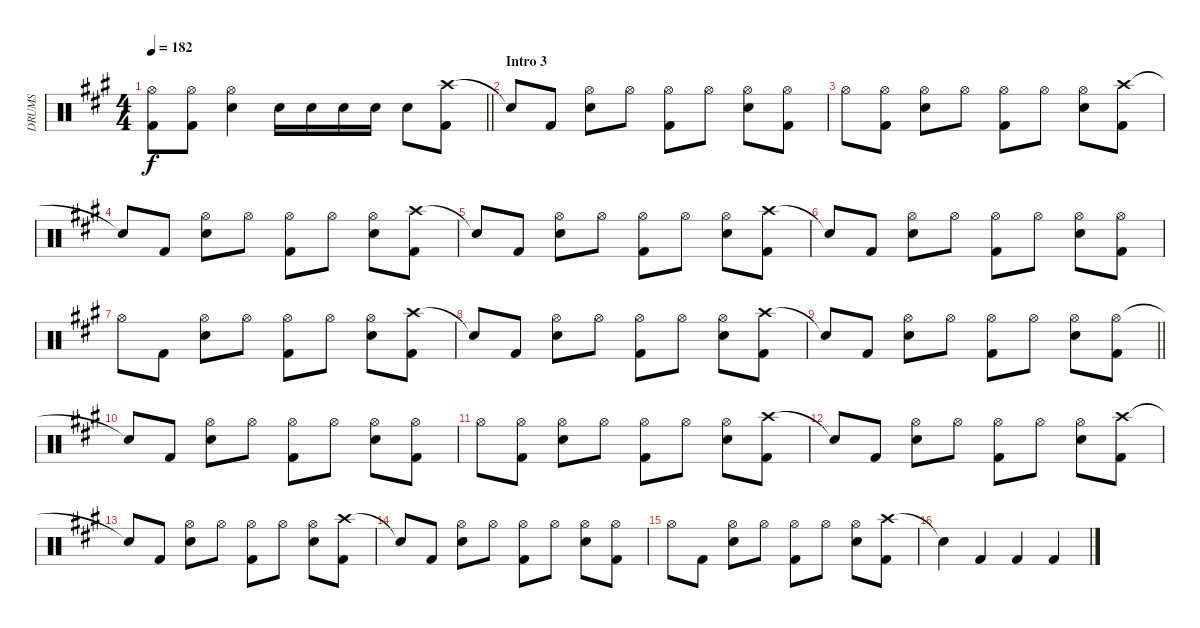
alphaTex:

\track ("DRUMS" "DRUMS") {instrument percussion}
\staff {score}
\articulation defaults
\ts (4 4)
\tempo 182
\clef neutral
\barLineRight lightlight
\ks a
("Hi-Hat (open)" "Kick (hit) 2").8{dy f} ("Hi-Hat (open)" "Kick (hit) 2").8 ("Hi-Hat (open)" "Snare (hit) 2").4 "Snare (hit) 2".16 "Snare (hit) 2".16 "Snare (hit) 2".16 "Snare (hit) 2".16 "Snare (hit) 2".8 ("Crash high (hit)" "Kick (hit) 2").8 |
\section ("" "Intro 3")
"Snare (hit)"{t}.8 "Kick (hit) 2".8 ("Hi-Hat (open)" "Snare (hit) 2").8 "Hi-Hat (open)".8 ("Hi-Hat (open)" "Kick (hit) 2").8 "Hi-Hat (open)".8 ("Hi-Hat (open)" "Snare (hit) 2").8 ("Hi-Hat (open)" "Kick (hit) 2").8 |
"Hi-Hat (open)".8 ("Hi-Hat (open)" "Kick (hit) 2").8 ("Hi-Hat (open)" "Snare (hit) 2").8 "Hi-Hat (open)".8 ("Hi-Hat (open)" "Kick (hit) 2").8 "Hi-Hat (open)".8 ("Hi-Hat (open)" "Snare (hit) 2").8 ("Crash high (hit)" "Kick (hit) 2").8 |
"Snare (hit)"{t}.8 "Kick (hit) 2".8 ("Hi-Hat (open)" "Snare (hit) 2").8 "Hi-Hat (open)".8 ("Hi-Hat (open)" "Kick (hit) 2").8 "Hi-Hat (open)".8 ("Hi-Hat (open)" "Snare (hit) 2").8 ("Crash high (hit)" "Kick (hit) 2").8 |
"Snare (hit)"{t}.8 "Kick (hit) 2".8 ("Hi-Hat (open)" "Snare (hit) 2").8 "Hi-Hat (open)".8 ("Hi-Hat (open)" "Kick (hit) 2").8 "Hi-Hat (open)".8 ("Hi-Hat (open)" "Snare (hit) 2").8 ("Crash high (hit)" "Kick (hit) 2").8 |
"Snare (hit)"{t}.8 "Kick (hit) 2".8 ("Hi-Hat (open)" "Snare (hit) 2").8 "Hi-Hat (open)".8 ("Hi-Hat (open)" "Kick (hit) 2").8 "Hi-Hat (open)".8 ("Hi-Hat (open)" "Snare (hit) 2").8 ("Hi-Hat (open)" "Kick (hit) 2").8 |
"Hi-Hat (open)".8 "Kick (hit) 2".8 ("Hi-Hat (open)" "Snare (hit) 2").8 "Hi-Hat (open)".8 ("Hi-Hat (open)" "Kick (hit) 2").8 "Hi-Hat (open)".8 ("Hi-Hat (open)" "Snare (hit) 2").8 ("Crash high (hit)" "Kick (hit) 2").8 |
"Snare (hit)"{t}.8 "Kick (hit) 2".8 ("Hi-Hat (open)" "Snare (hit) 2").8 "Hi-Hat (open)".8 ("Hi-Hat (open)" "Kick (hit) 2").8 "Hi-Hat (open)".8 ("Hi-Hat (open)" "Snare (hit) 2").8 ("Crash high (hit)" "Kick (hit) 2").8 |
\barLineRight lightlight "Snare (hit)"{t}.8 "Kick (hit) 2".8
("Hi-Hat (open)" "Snare (hit) 2").8 "Hi-Hat (open)".8 ("Hi-Hat (open)" "Kick (hit) 2").8 "Hi-Hat (open)".8 ("Hi-Hat (open)" "Snare (hit) 2").8 ("Hi-Hat (open)" "Kick (hit) 2").8 |
"Snare (hit)"{t}.8 "Kick (hit) 2".8 ("Hi-Hat (open)" "Snare (hit) 2").8 "Hi-Hat (open)".8 ("Hi-Hat (open)" "Kick (hit) 2").8 "Hi-Hat (open)".8 ("Hi-Hat (open)" "Snare (hit) 2").8 ("Hi-Hat (open)" "Kick (hit) 2").8 |
"Hi-Hat (open)".8 ("Hi-Hat (open)" "Kick (hit) 2").8 ("Hi-Hat (open)" "Snare (hit) 2").8 "Hi-Hat (open)".8 ("Hi-Hat (open)" "Kick (hit) 2").8 "Hi-Hat (open)".8 ("Hi-Hat (open)" "Snare (hit) 2").8 ("Crash high (hit)" "Kick (hit) 2").8 |
"Snare (hit)"{t}.8 "Kick (hit) 2".8 ("Hi-Hat (open)" "Snare (hit) 2").8 "Hi-Hat (open)".8 ("Hi-Hat (open)" "Kick (hit) 2").8 "Hi-Hat (open)".8 ("Hi-Hat (open)" "Snare (hit) 2").8 ("Crash high (hit)" "Kick (hit) 2").8 |
"Snare (hit)"{t}.8 "Kick (hit) 2".8 ("Hi-Hat (open)" "Snare (hit) 2").8 "Hi-Hat (open)".8 ("Hi-Hat (open)" "Kick (hit) 2").8 "Hi-Hat (open)".8 ("Hi-Hat (open)" "Snare (hit) 2").8 ("Crash high (hit)" "Kick (hit) 2").8 |
"Snare (hit)"{t}.8 "Kick (hit) 2".8 ("Hi-Hat (open)" "Snare (hit) 2").8 "Hi-Hat (open)".8 ("Hi-Hat (open)" "Kick (hit) 2").8 "Hi-Hat (open)".8 ("Hi-Hat (open)" "Snare (hit) 2").8 ("Hi-Hat (open)" "Kick (hit) 2").8 |
"Hi-Hat (open)".8 "Kick (hit) 2".8 ("Hi-Hat (open)" "Snare (hit) 2").8 "Hi-Hat (open)".8 ("Hi-Hat (open)" "Kick (hit) 2").8 "Hi-Hat (open)".8 ("Hi-Hat (open)" "Snare (hit) 2").8 ("Crash high (hit)" "Kick (hit) 2").8 |
"Snare (hit)"{t}.4 "Kick (hit) 2".4 "Kick (hit) 2".4 "Kick (hit) 2".4
